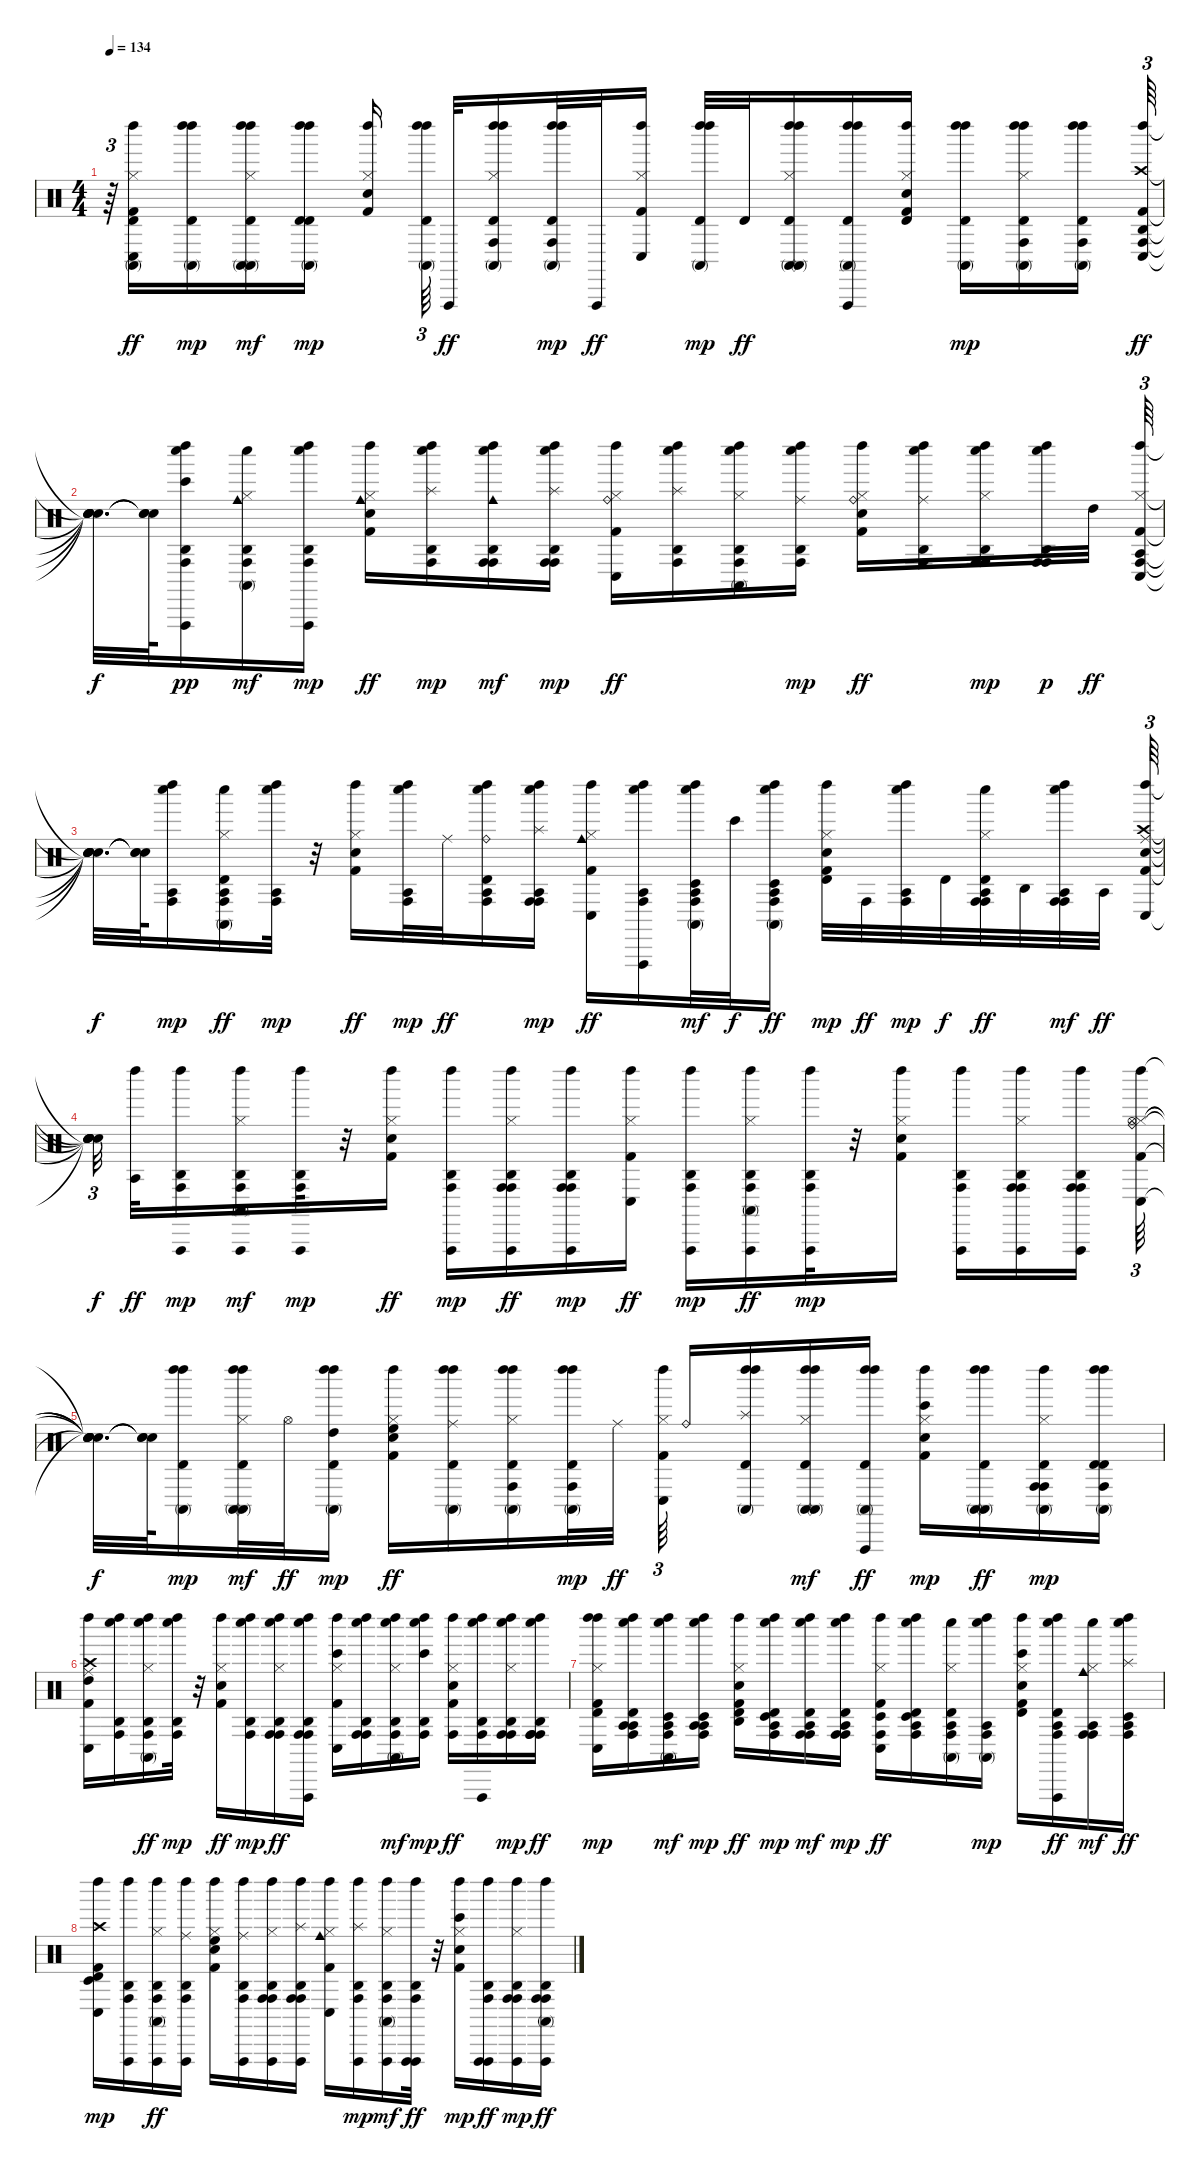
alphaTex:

\track "" {instrument percussion}
\staff {score}
\articulation defaults
\ts (4 4)
\tempo 134
\clef neutral
\ks c
r.64{tu (3 2) dy f} ("Kick (hit) 2" "Hi-Hat (closed)" "Conga low (hit)" "Left Maraca (hit)" "Timbale high (hit)" "Conga high (mute)").16{dy ff} ("Left Maraca (hit)" "Timbale high (hit)" "Conga high (mute)" "Left Maraca (hit)").16{dy mp} ("Left Maraca (hit)" "Timbale high (hit)" "Conga high (mute)" "Hi-Hat (closed)" "Conga high (mute)" "Left Maraca (hit)").16{dy mf} ("Timbale high (hit)" "Left Maraca (hit)" "Timbale high (hit)" "Conga high (mute)" "Left Maraca (hit)").16{dy mp} ("Kick (hit) 2" "Snare (hit) 2" "Hi-Hat (closed)" "Left Maraca (hit)").16{beam splitsecondary} ("Left Maraca (hit)" "Timbale high (hit)" "Conga high (mute)" "Left Maraca (hit)").64{tu (3 2) beam splitsecondary} "Vibraslap (hit)".32{dy ff} ("Left Maraca (hit)" "Timbale high (hit)" "Conga high (mute)" "Left Maraca (hit)" "Conga high (hit)" "Hi-Hat (closed)").16 ("Left Maraca (hit)" "Timbale high (hit)" "Conga high (mute)" "Conga high (hit)" "Left Maraca (hit)").32{dy mp} "Vibraslap (hit)".32{dy ff} ("Left Maraca (hit)" "Conga low (hit)" "Hi-Hat (closed)" "Kick (hit) 2").16 ("Left Maraca (hit)" "Timbale high (hit)" "Conga high (mute)" "Left Maraca (hit)").32{dy mp} "Timbale high (hit)".32{dy ff} ("Left Maraca (hit)" "Timbale high (hit)" "Conga high (mute)" "Left Maraca (hit)" "Conga high (mute)" "Hi-Hat (closed)").16 ("Left Maraca (hit)" "Timbale high (hit)" "Conga high (mute)" "Left Maraca (hit)" "Vibraslap (hit)").16 ("Timbale high (hit)" "Left Maraca (hit)" "Hi-Hat (closed)" "Snare (hit) 2" "Kick (hit) 2").16 ("Left Maraca (hit)" "Timbale high (hit)" "Conga high (mute)" "Left Maraca (hit)").16{dy mp} ("Left Maraca (hit)" "Timbale high (hit)" "Conga high (mute)" "Hi-Hat (closed)" "Conga high (hit)" "Left Maraca (hit)").16 ("Left Maraca (hit)" "Timbale high (hit)" "Conga high (mute)" "Left Maraca (hit)" "Conga high (hit)").16{beam splitsecondary} ("Kick (hit) 2" "Crash high (hit)" "Conga low (hit)" "Left Maraca (hit)" "Agogo high (hit)" "Conga high (hit)").64{tu (3 2) dy ff} |
("Snare (hit)"{t} "Snare (hit)"{t} "Snare (hit)"{t} "Snare (hit)"{t} "Snare (hit)"{t} "Snare (hit)"{t}).32{d dy f} ("Snare (hit)"{t} "Snare (hit)"{t} "Snare (hit)"{t}).64 ("Vibraslap (hit)" "Whistle low (hit)" "Agogo high (hit)" "Conga high (hit)" "Left Maraca (hit)" "Bongo High (hit)").16{dy pp} ("Cowbell medium (hit)" "Whistle low (hit)" "Agogo high (hit)" "Conga high (hit)" "Hi-Hat (closed)" "Conga high (mute)").16{dy mf} ("Vibraslap (hit)" "Whistle low (hit)" "Agogo high (hit)" "Conga high (hit)" "Left Maraca (hit)").16{dy mp} ("Cowbell medium (hit)" "Left Maraca (hit)" "Hi-Hat (closed)" "Snare (hit) 2" "Kick (hit) 2").16{dy ff} ("Splash (hit)" "Whistle low (hit)" "Agogo high (hit)" "Conga high (hit)" "Left Maraca (hit)").16{dy mp} ("Cowbell medium (hit)" "Whistle low (hit)" "Agogo high (hit)" "Conga high (hit)" "Left Maraca (hit)" "Conga high (hit)").16{dy mf} ("Splash (hit)" "Whistle low (hit)" "Agogo high (hit)" "Conga high (hit)" "Conga high (hit)" "Left Maraca (hit)").16{dy mp} ("Left Maraca (hit)" "Conga low (hit)" "Hi-Hat (closed)" "Kick (hit) 2" "Ride (bell)").16{dy ff} ("Whistle low (hit)" "Agogo high (hit)" "Conga high (hit)" "Left Maraca (hit)" "Splash (hit)").16 ("Whistle low (hit)" "Agogo high (hit)" "Conga high (hit)" "Left Maraca (hit)" "Conga high (mute)" "Hi-Hat (closed)").16 ("Ride (middle)" "Whistle low (hit)" "Agogo high (hit)" "Conga high (hit)" "Left Maraca (hit)").16{dy mp} ("Kick (hit) 2" "Snare (hit) 2" "Hi-Hat (closed)" "Left Maraca (hit)" "Ride (bell)").16{dy ff} ("Whistle low (hit)" "Agogo high (hit)" "Conga high (hit)" "Left Maraca (hit)" "Ride (middle)").16 ("Whistle low (hit)" "Agogo high (hit)" "Conga high (hit)" "Hi-Hat (closed)" "Conga high (hit)" "Left Maraca (hit)").16{dy mp} ("Whistle low (hit)" "Agogo high (hit)" "Conga high (hit)" "Left Maraca (hit)" "Conga high (hit)").32{dy p} "High Tom (hit)".32{dy ff} ("Kick (hit) 2" "Hi-Hat (closed)" "Conga low (hit)" "Left Maraca (hit)" "Agogo tow (hit)" "Conga high (hit)").64{tu (3 2)} |
("Snare (hit)"{t} "Snare (hit)"{t} "Snare (hit)"{t} "Snare (hit)"{t} "Snare (hit)"{t} "Snare (hit)"{t}).32{d dy f} ("Snare (hit)"{t} "Snare (hit)"{t} "Snare (hit)"{t}).64 ("Whistle low (hit)" "Agogo tow (hit)" "Conga high (hit)" "Left Maraca (hit)").16{dy mp} ("Whistle low (hit)" "Agogo tow (hit)" "Conga high (hit)" "Hi-Hat (closed)" "Conga high (mute)" "Timbale high (hit)").16{dy ff} ("Whistle low (hit)" "Agogo tow (hit)" "Conga high (hit)" "Left Maraca (hit)").32{dy mp} r.32 ("Left Maraca (hit)" "Hi-Hat (closed)" "Snare (hit) 2" "Kick (hit) 2").16{dy ff} ("Whistle low (hit)" "Agogo tow (hit)" "Conga high (hit)" "Left Maraca (hit)").32{dy mp} "Ride (middle)".32{dy ff} ("Ride (bell)" "Whistle low (hit)" "Agogo tow (hit)" "Conga high (hit)" "Left Maraca (hit)" "Timbale high (hit)").16 ("Splash (hit)" "Whistle low (hit)" "Agogo tow (hit)" "Conga high (hit)" "Conga high (hit)" "Left Maraca (hit)").16{dy mp} ("Cowbell medium (hit)" "Left Maraca (hit)" "Conga low (hit)" "Hi-Hat (closed)" "Kick (hit) 2").16{dy ff} ("Whistle low (hit)" "Agogo tow (hit)" "Conga high (hit)" "Left Maraca (hit)" "Vibraslap (hit)").16 ("Whistle low (hit)" "Agogo tow (hit)" "Conga high (hit)" "Left Maraca (hit)" "Timbale low (hit)" "Conga high (mute)").32{dy mf} "Bongo High (hit)".32{dy f} ("Conga high (hit)" "Agogo tow (hit)" "Whistle low (hit)" "Timbale low (hit)" "Left Maraca (hit)" "Conga high (mute)").16{dy ff} ("Kick (hit) 2" "Snare (hit) 2" "Hi-Hat (closed)" "Timbale high (hit)" "Left Maraca (hit)").32{dy mp} "Conga high (hit)".32{dy ff} ("Whistle low (hit)" "Agogo tow (hit)" "Conga high (hit)" "Left Maraca (hit)").32{dy mp} "Timbale high (hit)".32{dy f} ("Whistle low (hit)" "Agogo tow (hit)" "Conga high (hit)" "Hi-Hat (closed)" "Conga high (hit)" "Timbale high (hit)").32{dy ff} "Agogo high (hit)".32 ("Whistle low (hit)" "Agogo tow (hit)" "Conga high (hit)" "Left Maraca (hit)" "Conga high (hit)").32{dy mf} "Agogo tow (hit)".32{dy ff} ("Kick (hit) 2" "Crash high (hit)" "Conga low (hit)" "Left Maraca (hit)" "Hand Clap (hit)" "Ride (middle)").64{tu (3 2)} |
("Snare (hit)"{t} "Snare (hit)"{t} "Snare (hit)"{t} "Snare (hit)"{t} "Snare (hit)"{t} "Snare (hit)"{t}).32{tu (3 2) dy f beam splitsecondary} ("Agogo tow (hit)" "Left Maraca (hit)").32{dy ff} ("Agogo high (hit)" "Conga high (hit)" "Vibraslap (hit)" "Left Maraca (hit)").16{dy mp} ("Agogo high (hit)" "Conga high (hit)" "Vibraslap (hit)" "Hi-Hat (closed)" "Conga high (mute)" "Left Maraca (hit)").16{dy mf} ("Agogo high (hit)" "Conga high (hit)" "Vibraslap (hit)" "Left Maraca (hit)").32{dy mp} r.32 ("Left Maraca (hit)" "Hi-Hat (closed)" "Snare (hit) 2" "Kick (hit) 2").16{dy ff} ("Agogo high (hit)" "Conga high (hit)" "Vibraslap (hit)" "Left Maraca (hit)").16{dy mp} ("Agogo high (hit)" "Conga high (hit)" "Vibraslap (hit)" "Left Maraca (hit)" "Conga high (hit)" "Hi-Hat (closed)").16{dy ff} ("Agogo high (hit)" "Conga high (hit)" "Vibraslap (hit)" "Conga high (hit)" "Left Maraca (hit)").16{dy mp} ("Left Maraca (hit)" "Conga low (hit)" "Hi-Hat (closed)" "Kick (hit) 2").16{dy ff} ("Agogo high (hit)" "Conga high (hit)" "Vibraslap (hit)" "Left Maraca (hit)").16{dy mp} ("Agogo high (hit)" "Conga high (hit)" "Vibraslap (hit)" "Left Maraca (hit)" "Conga high (mute)" "Hi-Hat (closed)").16{dy ff} ("Agogo high (hit)" "Conga high (hit)" "Vibraslap (hit)" "Left Maraca (hit)").32{dy mp} r.32 ("Kick (hit) 2" "Snare (hit) 2" "Hi-Hat (closed)" "Left Maraca (hit)").16 ("Agogo high (hit)" "Conga high (hit)" "Vibraslap (hit)" "Left Maraca (hit)").16 ("Agogo high (hit)" "Conga high (hit)" "Vibraslap (hit)" "Hi-Hat (closed)" "Conga high (hit)" "Left Maraca (hit)").16 ("Agogo high (hit)" "Conga high (hit)" "Vibraslap (hit)" "Left Maraca (hit)" "Conga high (hit)").16{beam splitsecondary} ("Kick (hit) 2" "Hi-Hat (closed)" "Conga low (hit)" "Left Maraca (hit)" "Hi-Hat (open)" "Ride (bell)").64{tu (3 2)} |
("Snare (hit)"{t} "Snare (hit)"{t} "Snare (hit)"{t} "Snare (hit)"{t} "Snare (hit)"{t} "Snare (hit)"{t}).32{d dy f} ("Snare (hit)"{t} "Snare (hit)"{t} "Snare (hit)"{t}).64 ("Left Maraca (hit)" "Timbale high (hit)" "Conga high (mute)" "Left Maraca (hit)").16{dy mp} ("Conga high (mute)" "Timbale high (hit)" "Left Maraca (hit)" "Hi-Hat (closed)" "Conga high (mute)" "Left Maraca (hit)").32{dy mf} "Hi-Hat (open)".32{dy ff} ("High Tom (hit)" "Left Maraca (hit)" "Timbale high (hit)" "Conga high (mute)" "Left Maraca (hit)").16{dy mp} ("Left Maraca (hit)" "Hi-Hat (closed)" "Snare (hit) 2" "Kick (hit) 2" "High Floor Tom (hit)").16{dy ff} ("Left Maraca (hit)" "Timbale high (hit)" "Conga high (mute)" "Left Maraca (hit)" "Ride (middle)").16 ("Left Maraca (hit)" "Timbale high (hit)" "Conga high (mute)" "Left Maraca (hit)" "Conga high (hit)" "Hi-Hat (closed)").16 ("Left Maraca (hit)" "Timbale high (hit)" "Conga high (mute)" "Conga high (hit)" "Left Maraca (hit)").32{dy mp} "Ride (middle)".32{dy ff} ("Left Maraca (hit)" "Conga low (hit)" "Hi-Hat (closed)" "Kick (hit) 2").64{tu (3 2) beam splitsecondary} "Ride (bell)".16 ("Left Maraca (hit)" "Timbale high (hit)" "Conga high (mute)" "Left Maraca (hit)" "Splash (hit)").16 ("Left Maraca (hit)" "Timbale high (hit)" "Conga high (mute)" "Hi-Hat (closed)" "Conga high (mute)" "Left Maraca (hit)").16{dy mf} ("Left Maraca (hit)" "Timbale high (hit)" "Conga high (mute)" "Left Maraca (hit)" "Vibraslap (hit)").16{dy ff} ("Kick (hit) 2" "Snare (hit) 2" "Hi-Hat (closed)" "Left Maraca (hit)" "Bongo High (hit)").16{dy mp} ("Left Maraca (hit)" "Timbale high (hit)" "Conga high (mute)" "Left Maraca (hit)" "Conga high (mute)").16{dy ff} ("Conga high (hit)" "Left Maraca (hit)" "Timbale high (hit)" "Conga high (mute)" "Hi-Hat (closed)" "Conga high (hit)").16{dy mp} ("Timbale high (hit)" "Left Maraca (hit)" "Timbale high (hit)" "Conga high (mute)" "Left Maraca (hit)" "Conga high (hit)").16 |
("Kick (hit) 2" "Crash high (hit)" "Conga low (hit)" "Left Maraca (hit)" "High Tom (hit)" "Ride (middle)").16 ("Whistle low (hit)" "Agogo high (hit)" "Conga high (hit)" "Left Maraca (hit)").16 ("Whistle low (hit)" "Agogo high (hit)" "Conga high (hit)" "Left Maraca (hit)" "Conga high (mute)" "Hi-Hat (closed)").16{dy ff} ("Whistle low (hit)" "Agogo high (hit)" "Conga high (hit)" "Left Maraca (hit)").32{dy mp} r.32 ("Left Maraca (hit)" "Hi-Hat (closed)" "Snare (hit) 2" "Kick (hit) 2").16{dy ff} ("Whistle low (hit)" "Agogo high (hit)" "Conga high (hit)" "Left Maraca (hit)").16{dy mp} ("Whistle low (hit)" "Agogo high (hit)" "Conga high (hit)" "Left Maraca (hit)" "Conga high (hit)" "Hi-Hat (closed)").16{dy ff} ("Whistle low (hit)" "Agogo high (hit)" "Conga high (hit)" "Conga high (hit)" "Left Maraca (hit)" "Vibraslap (hit)").16 ("Left Maraca (hit)" "Conga low (hit)" "Hi-Hat (closed)" "Kick (hit) 2" "Bongo High (hit)").16 ("Conga high (hit)" "Agogo high (hit)" "Whistle low (hit)" "Left Maraca (hit)" "Conga high (hit)").16 ("Whistle low (hit)" "Agogo high (hit)" "Conga high (hit)" "Hi-Hat (closed)" "Conga high (mute)" "Left Maraca (hit)").16{dy mf} ("Whistle low (hit)" "Agogo high (hit)" "Conga high (hit)" "Left Maraca (hit)" "Bongo High (hit)").16{dy mp} ("Kick (hit) 2" "Snare (hit) 2" "Hi-Hat (closed)" "Left Maraca (hit)" "Conga high (hit)").16{dy ff} ("Whistle low (hit)" "Agogo high (hit)" "Conga high (hit)" "Left Maraca (hit)" "Vibraslap (hit)").16 ("Whistle low (hit)" "Agogo high (hit)" "Conga high (hit)" "Hi-Hat (closed)" "Conga high (hit)" "Left Maraca (hit)").16{dy mp} ("Whistle low (hit)" "Agogo high (hit)" "Conga high (hit)" "Left Maraca (hit)" "Conga high (hit)" "Conga high (hit)").16{dy ff} |
("Left Maraca (hit)" "Kick (hit) 2" "Hi-Hat (closed)" "Conga low (hit)" "Timbale high (hit)" "Left Maraca (hit)").16{dy mp} ("Agogo tow (hit)" "Whistle low (hit)" "Agogo tow (hit)" "Conga high (hit)" "Timbale high (hit)" "Left Maraca (hit)").16 ("Whistle low (hit)" "Agogo tow (hit)" "Conga high (hit)" "Left Maraca (hit)" "Timbale low (hit)" "Conga high (mute)").16{dy mf} ("Agogo tow (hit)" "Whistle low (hit)" "Agogo tow (hit)" "Conga high (hit)" "Timbale low (hit)" "Left Maraca (hit)").16{dy mp} ("Left Maraca (hit)" "Timbale high (hit)" "Hi-Hat (closed)" "Snare (hit) 2" "Kick (hit) 2" "Agogo high (hit)").16{dy ff} ("Timbale high (hit)" "Whistle low (hit)" "Agogo tow (hit)" "Conga high (hit)" "Timbale low (hit)" "Left Maraca (hit)").16{dy mp} ("Whistle low (hit)" "Agogo tow (hit)" "Conga high (hit)" "Left Maraca (hit)" "Timbale high (hit)" "Conga high (hit)").16{dy mf} ("Whistle low (hit)" "Agogo tow (hit)" "Conga high (hit)" "Conga high (hit)" "Timbale high (hit)" "Left Maraca (hit)").16{dy mp} ("Left Maraca (hit)" "Timbale low (hit)" "Conga low (hit)" "Hi-Hat (closed)" "Kick (hit) 2" "Conga high (hit)").16{dy ff} ("Whistle low (hit)" "Agogo tow (hit)" "Conga high (hit)" "Left Maraca (hit)" "Timbale low (hit)" "Timbale high (hit)").16 ("Whistle low (hit)" "Agogo tow (hit)" "Conga high (hit)" "Hi-Hat (closed)" "Conga high (mute)" "Timbale high (hit)").16 ("Conga high (mute)" "Whistle low (hit)" "Agogo tow (hit)" "Conga high (hit)" "Left Maraca (hit)").16{dy mp} ("Bongo High (hit)" "Kick (hit) 2" "Snare (hit) 2" "Hi-Hat (closed)" "Timbale high (hit)" "Left Maraca (hit)").16 ("Whistle low (hit)" "Agogo tow (hit)" "Conga high (hit)" "Left Maraca (hit)" "Timbale high (hit)" "Vibraslap (hit)").16{dy ff} ("Cowbell medium (hit)" "Whistle low (hit)" "Agogo tow (hit)" "Conga high (hit)" "Hi-Hat (closed)" "Conga high (hit)").16{dy mf} ("Splash (hit)" "Whistle low (hit)" "Agogo tow (hit)" "Conga high (hit)" "Left Maraca (hit)" "Timbale low (hit)").16{dy ff} |
("Kick (hit) 2" "Crash high (hit)" "Conga low (hit)" "Timbale high (hit)" "Timbale low (hit)" "Left Maraca (hit)").16{dy mp} ("Agogo high (hit)" "Conga high (hit)" "Vibraslap (hit)" "Left Maraca (hit)").16 ("Agogo high (hit)" "Conga high (hit)" "Vibraslap (hit)" "Left Maraca (hit)" "Conga high (mute)" "Hi-Hat (closed)").16{dy ff} ("Agogo high (hit)" "Conga high (hit)" "Vibraslap (hit)" "Left Maraca (hit)" "Ride (middle)").16 ("Left Maraca (hit)" "Hi-Hat (closed)" "Snare (hit) 2" "Kick (hit) 2" "High Floor Tom (hit)").16 ("Agogo high (hit)" "Conga high (hit)" "Vibraslap (hit)" "Left Maraca (hit)" "Ride (middle)").16 ("Agogo high (hit)" "Conga high (hit)" "Vibraslap (hit)" "Left Maraca (hit)" "Conga high (hit)" "Hi-Hat (closed)").16 ("Agogo high (hit)" "Conga high (hit)" "Vibraslap (hit)" "Conga high (hit)" "Left Maraca (hit)" "Splash (hit)").16 ("Kick (hit) 2" "Hi-Hat (closed)" "Conga low (hit)" "Left Maraca (hit)" "Cowbell medium (hit)").16 ("Agogo high (hit)" "Conga high (hit)" "Vibraslap (hit)" "Left Maraca (hit)" "Splash (hit)").16{dy mp} ("Agogo high (hit)" "Conga high (hit)" "Vibraslap (hit)" "Hi-Hat (closed)" "Conga high (mute)" "Left Maraca (hit)").16{dy mf} ("Agogo high (hit)" "Conga high (hit)" "Vibraslap (hit)" "Left Maraca (hit)" "Vibraslap (hit)").32{dy ff} r.32 ("Kick (hit) 2" "Snare (hit) 2" "Hi-Hat (closed)" "Left Maraca (hit)" "Bongo High (hit)").16{dy mp} ("Agogo high (hit)" "Conga high (hit)" "Vibraslap (hit)" "Left Maraca (hit)" "Vibraslap (hit)").16{dy ff} ("Agogo high (hit)" "Conga high (hit)" "Vibraslap (hit)" "Hi-Hat (closed)" "Conga high (hit)" "Left Maraca (hit)").16{dy mp} ("Agogo high (hit)" "Conga high (hit)" "Vibraslap (hit)" "Left Maraca (hit)" "Conga high (hit)" "Conga high (mute)").16{dy ff}
